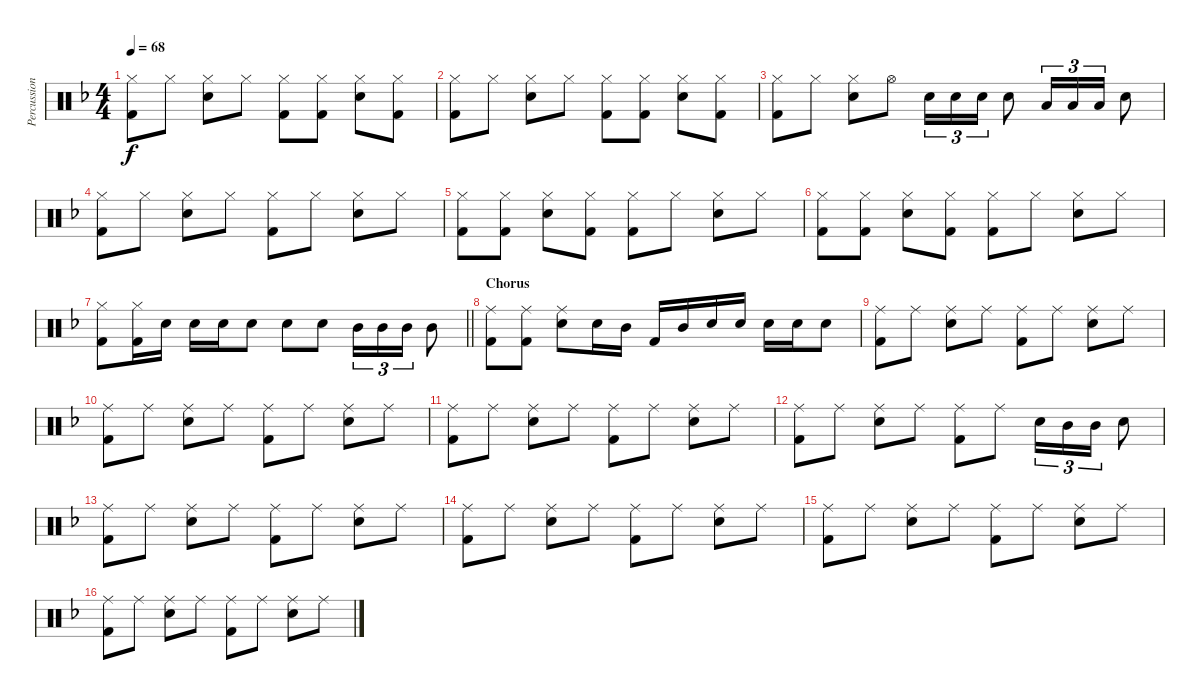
\track ("Percussion" "Percussion") {instrument percussion}
\staff {score}
\articulation defaults
\ts (4 4)
\tempo 68
\clef neutral
\ks f
("Hi-Hat (closed)" "Kick (hit) 2").8{dy f} "Hi-Hat (closed)".8 ("Hi-Hat (closed)" "Snare (hit) 2").8 "Hi-Hat (closed)".8 ("Hi-Hat (closed)" "Kick (hit) 2").8 ("Hi-Hat (closed)" "Kick (hit) 2").8 ("Hi-Hat (closed)" "Snare (hit) 2").8 ("Hi-Hat (closed)" "Kick (hit) 2").8 |
("Hi-Hat (closed)" "Kick (hit) 2").8 "Hi-Hat (closed)".8 ("Hi-Hat (closed)" "Snare (hit) 2").8 "Hi-Hat (closed)".8 ("Hi-Hat (closed)" "Kick (hit) 2").8 ("Hi-Hat (closed)" "Kick (hit) 2").8 ("Hi-Hat (closed)" "Snare (hit) 2").8 ("Hi-Hat (closed)" "Kick (hit) 2").8 |
("Hi-Hat (closed)" "Kick (hit) 2").8 "Hi-Hat (closed)".8 ("Hi-Hat (closed)" "Snare (hit) 2").8 "Hi-Hat (open)".8 "Snare (hit) 2".16{tu (3 2)} "Snare (hit) 2".16{tu (3 2)} "Snare (hit) 2".16{tu (3 2)} "Snare (hit) 2".8 "Low Floor Tom (hit)".16{tu (3 2)} "Low Floor Tom (hit)".16{tu (3 2)} "Low Floor Tom (hit)".16{tu (3 2)} "Snare (hit) 2".8 |
("Hi-Hat (closed)" "Kick (hit) 2").8 "Hi-Hat (closed)".8 ("Hi-Hat (closed)" "Snare (hit) 2").8 "Hi-Hat (closed)".8 ("Hi-Hat (closed)" "Kick (hit) 2").8 "Hi-Hat (closed)".8 ("Hi-Hat (closed)" "Snare (hit) 2").8 "Hi-Hat (closed)".8 |
("Hi-Hat (closed)" "Kick (hit) 2").8 ("Hi-Hat (closed)" "Kick (hit) 2").8 ("Hi-Hat (closed)" "Snare (hit) 2").8 ("Hi-Hat (closed)" "Kick (hit) 2").8 ("Hi-Hat (closed)" "Kick (hit) 2").8 "Hi-Hat (closed)".8 ("Hi-Hat (closed)" "Snare (hit) 2").8 "Hi-Hat (closed)".8 |
("Hi-Hat (closed)" "Kick (hit) 2").8 ("Hi-Hat (closed)" "Kick (hit) 2").8 ("Hi-Hat (closed)" "Snare (hit) 2").8 ("Hi-Hat (closed)" "Kick (hit) 2").8 ("Hi-Hat (closed)" "Kick (hit) 2").8 "Hi-Hat (closed)".8 ("Hi-Hat (closed)" "Snare (hit) 2").8 "Hi-Hat (closed)".8 |
\barLineRight lightlight
("Hi-Hat (closed)" "Kick (hit) 2").8 ("Hi-Hat (closed)" "Kick (hit) 2").16 "Snare (hit) 2".16 "Snare (hit) 2".16 "Snare (hit) 2".16 "Snare (hit) 2".8 "Snare (hit) 2".8 "Snare (hit) 2".8 "Mid Tom (hit)".16{tu (3 2)} "Mid Tom (hit)".16{tu (3 2)} "Mid Tom (hit)".16{tu (3 2)} "Mid Tom (hit)".8 |
\section ("" "Chorus")
("Ride (middle)" "Kick (hit) 2").8 ("Ride (middle)" "Kick (hit) 2").8 ("Ride (middle)" "Snare (hit) 2").8 "Snare (hit) 2".16 "Mid Tom (hit)".16 "Kick (hit) 2".16 "Mid Tom (hit)".16 "Snare (hit) 2".16 "Snare (hit) 2".16 "Snare (hit) 2".16 "Snare (hit) 2".16 "Snare (hit) 2".8 |
("Ride (middle)" "Kick (hit) 2").8 "Ride (middle)".8 ("Ride (middle)" "Snare (hit) 2").8 "Ride (middle)".8 ("Ride (middle)" "Kick (hit) 2").8 "Ride (middle)".8 ("Ride (middle)" "Snare (hit) 2").8 "Ride (middle)".8 |
("Ride (middle)" "Kick (hit) 2").8 "Ride (middle)".8 ("Ride (middle)" "Snare (hit) 2").8 "Ride (middle)".8 ("Ride (middle)" "Kick (hit) 2").8 "Ride (middle)".8 ("Ride (middle)" "Snare (hit) 2").8 "Ride (middle)".8 |
("Ride (middle)" "Kick (hit) 2").8 "Ride (middle)".8 ("Ride (middle)" "Snare (hit) 2").8 "Ride (middle)".8 ("Ride (middle)" "Kick (hit) 2").8 "Ride (middle)".8 ("Ride (middle)" "Snare (hit) 2").8 "Ride (middle)".8 |
("Ride (middle)" "Kick (hit) 2").8 "Ride (middle)".8 ("Ride (middle)" "Snare (hit) 2").8 "Ride (middle)".8 ("Ride (middle)" "Kick (hit) 2").8 "Ride (middle)".8 "Snare (hit) 2".16{tu (3 2)} "Mid Tom (hit)".16{tu (3 2)} "Mid Tom (hit)".16{tu (3 2)} "Snare (hit) 2".8 |
("Ride (middle)" "Kick (hit) 2").8 "Ride (middle)".8 ("Ride (middle)" "Snare (hit) 2").8 "Ride (middle)".8 ("Ride (middle)" "Kick (hit) 2").8 "Ride (middle)".8 ("Ride (middle)" "Snare (hit) 2").8 "Ride (middle)".8 |
("Ride (middle)" "Kick (hit) 2").8 "Ride (middle)".8 ("Ride (middle)" "Snare (hit) 2").8 "Ride (middle)".8 ("Ride (middle)" "Kick (hit) 2").8 "Ride (middle)".8 ("Ride (middle)" "Snare (hit) 2").8 "Ride (middle)".8 |
("Ride (middle)" "Kick (hit) 2").8 "Ride (middle)".8 ("Ride (middle)" "Snare (hit) 2").8 "Ride (middle)".8 ("Ride (middle)" "Kick (hit) 2").8 "Ride (middle)".8 ("Ride (middle)" "Snare (hit) 2").8 "Ride (middle)".8 |
("Ride (middle)" "Kick (hit) 2").8 "Ride (middle)".8 ("Ride (middle)" "Snare (hit) 2").8 "Ride (middle)".8 ("Ride (middle)" "Kick (hit) 2").8 "Ride (middle)".8 ("Ride (middle)" "Snare (hit) 2").8 "Ride (middle)".8
